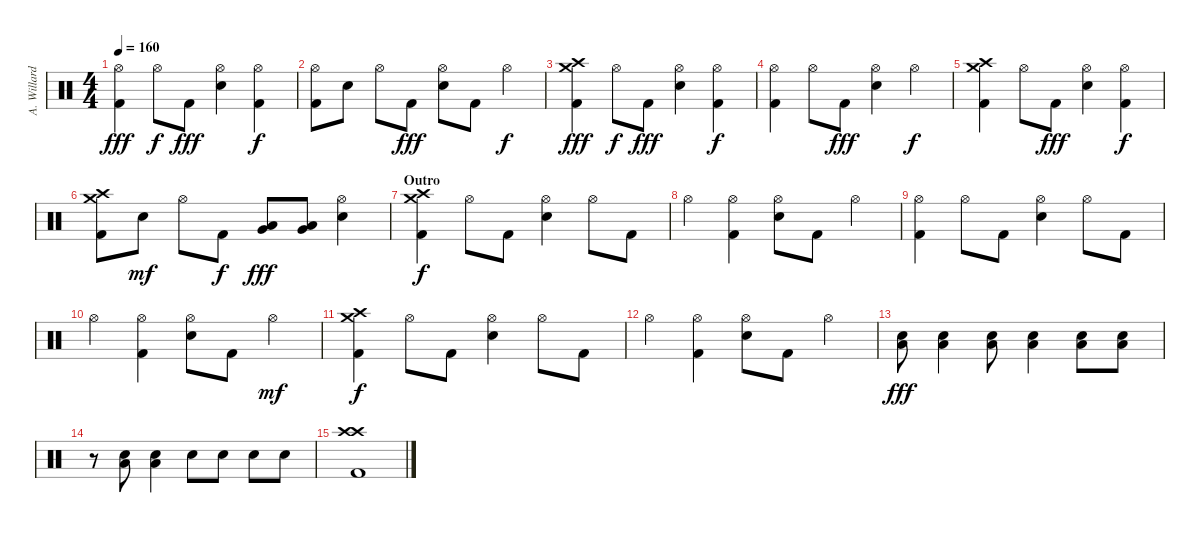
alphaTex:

\track ("A. Willard (Drums)" "A. Willard") {instrument percussion}
\staff {score}
\articulation defaults
\ts (4 4)
\tempo 160
\clef neutral
\ks c
("Hi-Hat (open)" "Kick (hit) 2").4{dy fff} "Hi-Hat (open)".8{dy f} "Kick (hit) 2".8{dy fff} ("Hi-Hat (open)" "Electric Snare (hit)").4 ("Hi-Hat (open)" "Kick (hit) 2").4{dy f} |
("Hi-Hat (open)" "Kick (hit) 2").8 "Electric Snare (hit)".8 "Hi-Hat (open)".8 "Kick (hit) 2".8{dy fff} ("Hi-Hat (open)" "Electric Snare (hit)").8 "Kick (hit) 2".8 "Hi-Hat (open)".4{dy f} |
("Crash high (hit)" "Kick (hit) 2" "Crash medium (hit)").4{dy fff} "Hi-Hat (open)".8{dy f} "Kick (hit) 2".8{dy fff} ("Hi-Hat (open)" "Electric Snare (hit)").4 ("Hi-Hat (open)" "Kick (hit) 2").4{dy f} |
("Hi-Hat (open)" "Kick (hit) 2").4 "Hi-Hat (open)".8 "Kick (hit) 2".8{dy fff} ("Hi-Hat (open)" "Electric Snare (hit)").4 "Hi-Hat (open)".4{dy f} |
("Crash high (hit)" "Kick (hit) 2" "Crash medium (hit)").4 "Hi-Hat (open)".8 "Kick (hit) 2".8{dy fff} ("Hi-Hat (open)" "Electric Snare (hit)").4 ("Hi-Hat (open)" "Kick (hit) 2").4{dy f} |
("Crash high (hit)" "Kick (hit) 2" "Crash medium (hit)").8 "Electric Snare (hit)".8{dy mf} "Hi-Hat (open)".8 "Kick (hit) 2".8{dy f} ("Very Low Tom (hit)" "Low Floor Tom (hit)").8{dy fff} ("Very Low Tom (hit)" "Low Floor Tom (hit)").8 ("Hi-Hat (open)" "Electric Snare (hit)").4 |
\section ("" "Outro")
("Crash high (hit)" "Kick (hit) 2" "Crash medium (hit)").4{dy f} "Hi-Hat (open)".8 "Kick (hit) 2".8 ("Hi-Hat (open)" "Electric Snare (hit)").4 "Hi-Hat (open)".8 "Kick (hit) 2".8 |
"Hi-Hat (open)".4 ("Hi-Hat (open)" "Kick (hit) 2").4 ("Hi-Hat (open)" "Electric Snare (hit)").8 "Kick (hit) 2".8 "Hi-Hat (open)".4 |
("Hi-Hat (open)" "Kick (hit) 2").4 "Hi-Hat (open)".8 "Kick (hit) 2".8 ("Hi-Hat (open)" "Electric Snare (hit)").4 "Hi-Hat (open)".8 "Kick (hit) 2".8 |
"Hi-Hat (open)".4 ("Hi-Hat (open)" "Kick (hit) 2").4 ("Hi-Hat (open)" "Electric Snare (hit)").8 "Kick (hit) 2".8 "Hi-Hat (open)".4{dy mf} |
("Crash high (hit)" "Kick (hit) 2" "Crash medium (hit)").4{dy f} "Hi-Hat (open)".8 "Kick (hit) 2".8 ("Hi-Hat (open)" "Electric Snare (hit)").4 "Hi-Hat (open)".8 "Kick (hit) 2".8 |
"Hi-Hat (open)".4 ("Hi-Hat (open)" "Kick (hit) 2").4 ("Hi-Hat (open)" "Electric Snare (hit)").8 "Kick (hit) 2".8 "Hi-Hat (open)".4 |
("Electric Snare (hit)" "Low Floor Tom (hit)").8{dy fff} ("Electric Snare (hit)" "Low Floor Tom (hit)").4 ("Electric Snare (hit)" "Low Floor Tom (hit)").8 ("Electric Snare (hit)" "Low Floor Tom (hit)").4 ("Electric Snare (hit)" "Low Floor Tom (hit)").8 ("Electric Snare (hit)" "Low Floor Tom (hit)").8 |
r.8 ("Electric Snare (hit)" "Low Floor Tom (hit)").8 ("Electric Snare (hit)" "Low Floor Tom (hit)").4 "Electric Snare (hit)".8 "Electric Snare (hit)".8 "Electric Snare (hit)".8 "Electric Snare (hit)".8 |
("Crash high (hit)" "Kick (hit) 2" "Crash high (hit)").1
